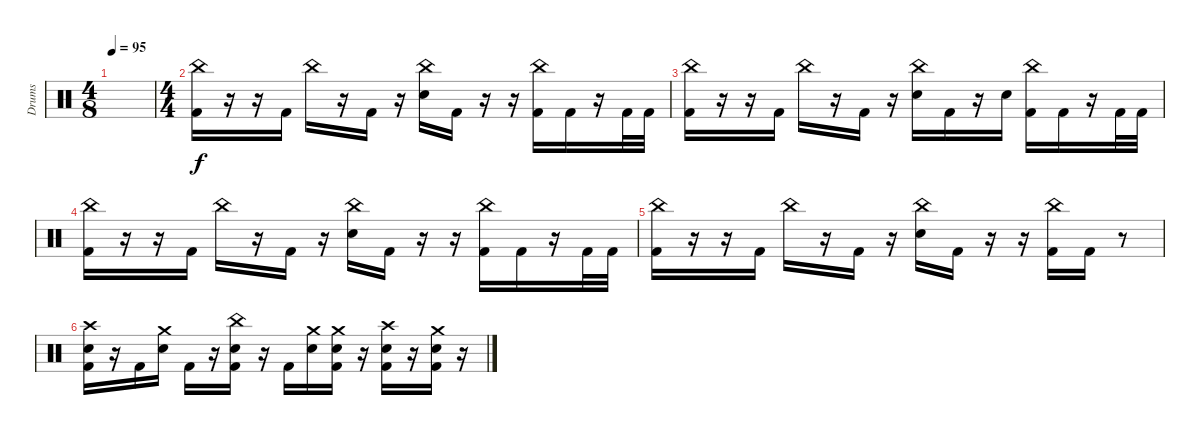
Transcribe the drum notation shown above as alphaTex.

\track ("Drums" "Drums") {instrument percussion}
\staff {score}
\articulation defaults
\ts (4 8)
\tempo 95
\clef neutral
\ks c
|
\ts (4 4)
("China (hit)" "Kick (hit) 2").16{dy f} r.16 r.16 "Kick (hit) 2".16 "China (hit)".16 r.16 "Kick (hit) 2".16 r.16 ("China (hit)" "Electric Snare (hit)").16 "Kick (hit) 2".16 r.16 r.16 ("China (hit)" "Kick (hit) 2").16 "Kick (hit) 2".16 r.16 "Kick (hit) 2".32 "Kick (hit) 2".32 |
("China (hit)" "Kick (hit) 2").16 r.16 r.16 "Kick (hit) 2".16 "China (hit)".16 r.16 "Kick (hit) 2".16 r.16 ("China (hit)" "Electric Snare (hit)").16 "Kick (hit) 2".16 r.16 "Electric Snare (hit)".16 ("China (hit)" "Kick (hit) 2").16 "Kick (hit) 2".16 r.16 "Kick (hit) 2".32 "Kick (hit) 2".32 |
("China (hit)" "Kick (hit) 2").16 r.16 r.16 "Kick (hit) 2".16 "China (hit)".16 r.16 "Kick (hit) 2".16 r.16 ("China (hit)" "Electric Snare (hit)").16 "Kick (hit) 2".16 r.16 r.16 ("China (hit)" "Kick (hit) 2").16 "Kick (hit) 2".16 r.16 "Kick (hit) 2".32 "Kick (hit) 2".32 |
("China (hit)" "Kick (hit) 2").16 r.16 r.16 "Kick (hit) 2".16 "China (hit)".16 r.16 "Kick (hit) 2".16 r.16 ("China (hit)" "Electric Snare (hit)").16 "Kick (hit) 2".16 r.16 r.16 ("China (hit)" "Kick (hit) 2").16 "Kick (hit) 2".16 r.8 |
("Crash high (hit)" "Electric Snare (hit)" "Kick (hit) 2").16 r.16 "Kick (hit) 2".16 ("Crash medium (hit)" "Electric Snare (hit)").16 "Kick (hit) 2".16 r.16 ("China (hit)" "Electric Snare (hit)" "Kick (hit) 2").16 r.16 "Kick (hit) 2".16 ("Crash medium (hit)" "Electric Snare (hit)").16 ("Crash medium (hit)" "Electric Snare (hit)" "Kick (hit) 2").16 r.16 ("Crash high (hit)" "Electric Snare (hit)" "Kick (hit) 2").16 r.16 ("Crash medium (hit)" "Electric Snare (hit)" "Kick (hit) 2").16 r.16
